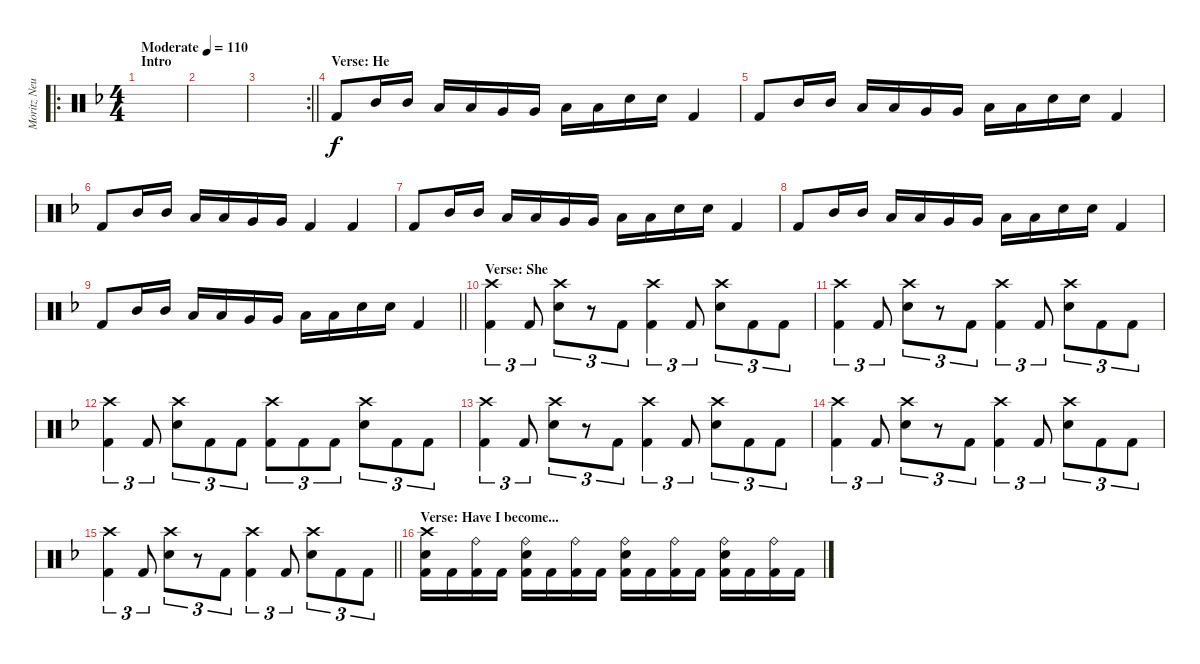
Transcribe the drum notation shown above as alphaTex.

\track ("Moritz Neuner" "Moritz Neu") {instrument percussion}
\staff {score}
\articulation defaults
\ro
\ts (4 4)
\section ("" "Intro")
\tempo (110 "Moderate")
\clef neutral
\ks f
|
|
\rc 2
\barLineRight lightlight
|
\section ("" "Verse: He")
"Kick (hit) 2".8 "Mid Tom (hit)".16 "Mid Tom (hit)".16 "Low Tom (hit)".16 "Low Tom (hit)".16 "Very Low Tom (hit)".16 "Very Low Tom (hit)".16 "Low Floor Tom (hit)".16 "Low Floor Tom (hit)".16 "Snare (hit) 2".16 "Snare (hit) 2".16 "Kick (hit) 2".4 |
"Kick (hit) 2".8 "Mid Tom (hit)".16 "Mid Tom (hit)".16 "Low Tom (hit)".16 "Low Tom (hit)".16 "Very Low Tom (hit)".16 "Very Low Tom (hit)".16 "Low Floor Tom (hit)".16 "Low Floor Tom (hit)".16 "Snare (hit) 2".16 "Snare (hit) 2".16 "Kick (hit) 2".4 |
"Kick (hit) 2".8 "Mid Tom (hit)".16 "Mid Tom (hit)".16 "Low Tom (hit)".16 "Low Tom (hit)".16 "Very Low Tom (hit)".16 "Very Low Tom (hit)".16 "Kick (hit) 2".4 "Kick (hit) 2".4 |
"Kick (hit) 2".8 "Mid Tom (hit)".16 "Mid Tom (hit)".16 "Low Tom (hit)".16 "Low Tom (hit)".16 "Very Low Tom (hit)".16 "Very Low Tom (hit)".16 "Low Floor Tom (hit)".16 "Low Floor Tom (hit)".16 "Snare (hit) 2".16 "Snare (hit) 2".16 "Kick (hit) 2".4 |
"Kick (hit) 2".8 "Mid Tom (hit)".16 "Mid Tom (hit)".16 "Low Tom (hit)".16 "Low Tom (hit)".16 "Very Low Tom (hit)".16 "Very Low Tom (hit)".16 "Low Floor Tom (hit)".16 "Low Floor Tom (hit)".16 "Snare (hit) 2".16 "Snare (hit) 2".16 "Kick (hit) 2".4 |
\barLineRight lightlight "Kick (hit) 2".8 "Mid Tom (hit)".16 "Mid Tom (hit)".16 "Low Tom (hit)".16 "Low Tom (hit)".16 "Very Low Tom (hit)".16 "Very Low Tom (hit)".16 "Low Floor Tom (hit)".16 "Low Floor Tom (hit)".16 "Snare (hit) 2".16 "Snare (hit) 2".16 "Kick (hit) 2".4
|
\section ("" "Verse: She")
("Crash high (hit)" "Kick (hit) 2").4{tu (3 2)} "Kick (hit) 2".8{tu (3 2)} ("Crash high (hit)" "Snare (hit) 2").8{tu (3 2)} r.8{tu (3 2)} "Kick (hit) 2".8{tu (3 2)} ("Crash high (hit)" "Kick (hit) 2").4{tu (3 2)} "Kick (hit) 2".8{tu (3 2)} ("Crash high (hit)" "Snare (hit) 2").8{tu (3 2)} "Kick (hit) 2".8{tu (3 2)} "Kick (hit) 2".8{tu (3 2)} |
("Crash high (hit)" "Kick (hit) 2").4{tu (3 2)} "Kick (hit) 2".8{tu (3 2)} ("Crash high (hit)" "Snare (hit) 2").8{tu (3 2)} r.8{tu (3 2)} "Kick (hit) 2".8{tu (3 2)} ("Crash high (hit)" "Kick (hit) 2").4{tu (3 2)} "Kick (hit) 2".8{tu (3 2)} ("Crash high (hit)" "Snare (hit) 2").8{tu (3 2)} "Kick (hit) 2".8{tu (3 2)} "Kick (hit) 2".8{tu (3 2)} |
("Crash high (hit)" "Kick (hit) 2").4{tu (3 2)} "Kick (hit) 2".8{tu (3 2)} ("Crash high (hit)" "Snare (hit) 2").8{tu (3 2)} "Kick (hit) 2".8{tu (3 2)} "Kick (hit) 2".8{tu (3 2)} ("Crash high (hit)" "Kick (hit) 2").8{tu (3 2)} "Kick (hit) 2".8{tu (3 2)} "Kick (hit) 2".8{tu (3 2)} ("Crash high (hit)" "Snare (hit) 2").8{tu (3 2)} "Kick (hit) 2".8{tu (3 2)} "Kick (hit) 2".8{tu (3 2)} |
("Crash high (hit)" "Kick (hit) 2").4{tu (3 2)} "Kick (hit) 2".8{tu (3 2)} ("Crash high (hit)" "Snare (hit) 2").8{tu (3 2)} r.8{tu (3 2)} "Kick (hit) 2".8{tu (3 2)} ("Crash high (hit)" "Kick (hit) 2").4{tu (3 2)} "Kick (hit) 2".8{tu (3 2)} ("Crash high (hit)" "Snare (hit) 2").8{tu (3 2)} "Kick (hit) 2".8{tu (3 2)} "Kick (hit) 2".8{tu (3 2)} |
("Crash high (hit)" "Kick (hit) 2").4{tu (3 2)} "Kick (hit) 2".8{tu (3 2)} ("Crash high (hit)" "Snare (hit) 2").8{tu (3 2)} r.8{tu (3 2)} "Kick (hit) 2".8{tu (3 2)} ("Crash high (hit)" "Kick (hit) 2").4{tu (3 2)} "Kick (hit) 2".8{tu (3 2)} ("Crash high (hit)" "Snare (hit) 2").8{tu (3 2)} "Kick (hit) 2".8{tu (3 2)} "Kick (hit) 2".8{tu (3 2)} |
\barLineRight lightlight
("Crash high (hit)" "Kick (hit) 2").4{tu (3 2)} "Kick (hit) 2".8{tu (3 2)} ("Crash high (hit)" "Snare (hit) 2").8{tu (3 2)} r.8{tu (3 2)} "Kick (hit) 2".8{tu (3 2)} ("Crash high (hit)" "Kick (hit) 2").4{tu (3 2)} "Kick (hit) 2".8{tu (3 2)} ("Crash high (hit)" "Snare (hit) 2").8{tu (3 2)} "Kick (hit) 2".8{tu (3 2)} "Kick (hit) 2".8{tu (3 2)} |
\section ("" "Verse: Have I become...")
("Crash high (hit)" "Snare (hit) 2" "Kick (hit) 2").16 "Kick (hit) 2".16 ("Ride (bell)" "Kick (hit) 2").16 "Kick (hit) 2".16 ("Ride (bell)" "Snare (hit) 2" "Kick (hit) 2").16 "Kick (hit) 2".16 ("Ride (bell)" "Kick (hit) 2").16 "Kick (hit) 2".16 ("Ride (bell)" "Snare (hit) 2" "Kick (hit) 2").16 "Kick (hit) 2".16 ("Ride (bell)" "Kick (hit) 2").16 "Kick (hit) 2".16 ("Ride (bell)" "Snare (hit) 2" "Kick (hit) 2").16 "Kick (hit) 2".16 ("Ride (bell)" "Kick (hit) 2").16 "Kick (hit) 2".16
